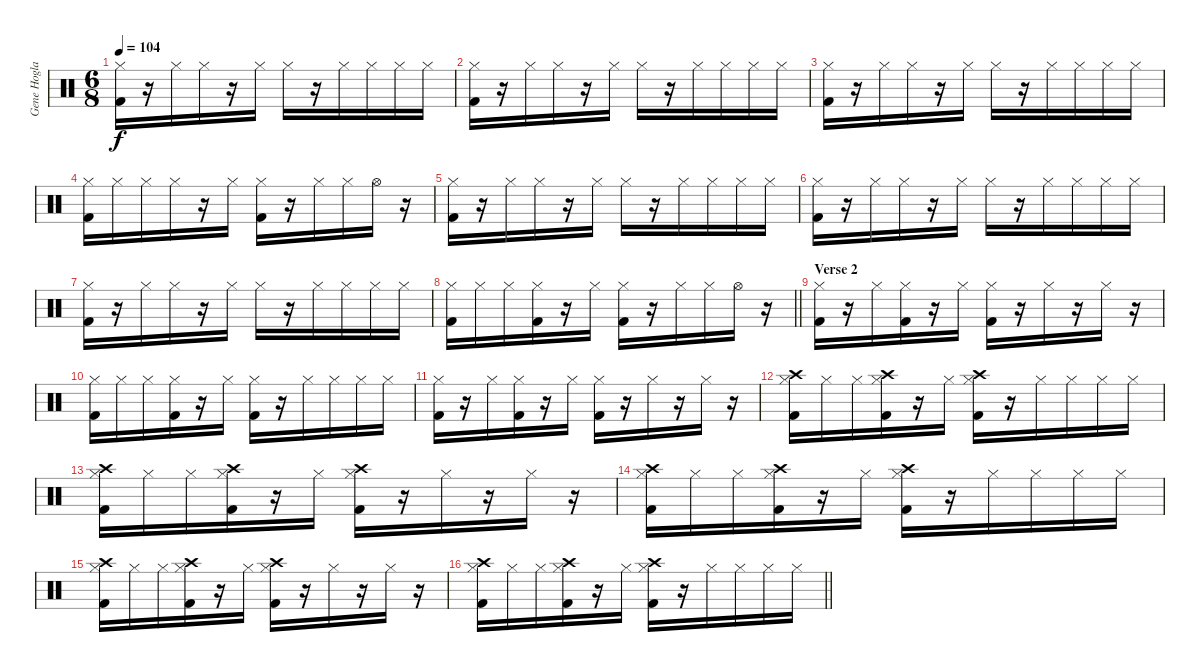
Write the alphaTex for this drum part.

\track ("Gene Hoglan" "Gene Hogla") {instrument percussion}
\staff {score}
\articulation defaults
\ts (6 8)
\tempo 104
\clef neutral
\ks c
("Hi-Hat (closed)" "Kick (hit) 2").16{dy f} r.16 "Hi-Hat (closed)".16 "Hi-Hat (closed)".16 r.16 "Hi-Hat (closed)".16 "Hi-Hat (closed)".16 r.16 "Hi-Hat (closed)".16 "Hi-Hat (closed)".16 "Hi-Hat (closed)".16 "Hi-Hat (closed)".16 |
("Hi-Hat (closed)" "Kick (hit) 2").16 r.16 "Hi-Hat (closed)".16 "Hi-Hat (closed)".16 r.16 "Hi-Hat (closed)".16 "Hi-Hat (closed)".16 r.16 "Hi-Hat (closed)".16 "Hi-Hat (closed)".16 "Hi-Hat (closed)".16 "Hi-Hat (closed)".16 |
("Hi-Hat (closed)" "Kick (hit) 2").16 r.16 "Hi-Hat (closed)".16 "Hi-Hat (closed)".16 r.16 "Hi-Hat (closed)".16 "Hi-Hat (closed)".16 r.16 "Hi-Hat (closed)".16 "Hi-Hat (closed)".16 "Hi-Hat (closed)".16 "Hi-Hat (closed)".16 |
("Hi-Hat (closed)" "Kick (hit) 2").16 "Hi-Hat (closed)".16 "Hi-Hat (closed)".16 "Hi-Hat (closed)".16 r.16 "Hi-Hat (closed)".16 ("Hi-Hat (closed)" "Kick (hit) 2").16 r.16 "Hi-Hat (closed)".16 "Hi-Hat (closed)".16 "Hi-Hat (open)".16 r.16 |
("Hi-Hat (closed)" "Kick (hit) 2").16 r.16 "Hi-Hat (closed)".16 "Hi-Hat (closed)".16 r.16 "Hi-Hat (closed)".16 "Hi-Hat (closed)".16 r.16 "Hi-Hat (closed)".16 "Hi-Hat (closed)".16 "Hi-Hat (closed)".16 "Hi-Hat (closed)".16 |
("Hi-Hat (closed)" "Kick (hit) 2").16 r.16 "Hi-Hat (closed)".16 "Hi-Hat (closed)".16 r.16 "Hi-Hat (closed)".16 "Hi-Hat (closed)".16 r.16 "Hi-Hat (closed)".16 "Hi-Hat (closed)".16 "Hi-Hat (closed)".16 "Hi-Hat (closed)".16 |
("Hi-Hat (closed)" "Kick (hit) 2").16 r.16 "Hi-Hat (closed)".16 "Hi-Hat (closed)".16 r.16 "Hi-Hat (closed)".16 "Hi-Hat (closed)".16 r.16 "Hi-Hat (closed)".16 "Hi-Hat (closed)".16 "Hi-Hat (closed)".16 "Hi-Hat (closed)".16 |
\barLineRight lightlight
("Hi-Hat (closed)" "Kick (hit) 2").16 "Hi-Hat (closed)".16 "Hi-Hat (closed)".16 ("Hi-Hat (closed)" "Kick (hit) 2").16 r.16 "Hi-Hat (closed)".16 ("Hi-Hat (closed)" "Kick (hit) 2").16 r.16 "Hi-Hat (closed)".16 "Hi-Hat (closed)".16 "Hi-Hat (open)".16 r.16 |
\section ("" "Verse 2")
("Hi-Hat (closed)" "Kick (hit) 2").16 r.16 "Hi-Hat (closed)".16 ("Hi-Hat (closed)" "Kick (hit) 2").16 r.16 "Hi-Hat (closed)".16 ("Hi-Hat (closed)" "Kick (hit) 2").16 r.16 "Hi-Hat (closed)".16 r.16 "Hi-Hat (closed)".16 r.16 |
("Hi-Hat (closed)" "Kick (hit) 2").16 "Hi-Hat (closed)".16 "Hi-Hat (closed)".16 ("Hi-Hat (closed)" "Kick (hit) 2").16 r.16 "Hi-Hat (closed)".16 ("Hi-Hat (closed)" "Kick (hit) 2").16 r.16 "Hi-Hat (closed)".16 "Hi-Hat (closed)".16 "Hi-Hat (closed)".16 "Hi-Hat (closed)".16 |
("Hi-Hat (closed)" "Kick (hit) 2").16 r.16 "Hi-Hat (closed)".16 ("Hi-Hat (closed)" "Kick (hit) 2").16 r.16 "Hi-Hat (closed)".16 ("Hi-Hat (closed)" "Kick (hit) 2").16 r.16 "Hi-Hat (closed)".16 r.16 "Hi-Hat (closed)".16 r.16 |
("Hi-Hat (closed)" "Crash high (hit)" "Kick (hit) 2").16 "Hi-Hat (closed)".16 "Hi-Hat (closed)".16 ("Hi-Hat (closed)" "Crash high (hit)" "Kick (hit) 2").16 r.16 "Hi-Hat (closed)".16 ("Hi-Hat (closed)" "Crash high (hit)" "Kick (hit) 2").16 r.16 "Hi-Hat (closed)".16 "Hi-Hat (closed)".16 "Hi-Hat (closed)".16 "Hi-Hat (closed)".16 |
("Hi-Hat (closed)" "Crash high (hit)" "Kick (hit) 2").16 "Hi-Hat (closed)".16 "Hi-Hat (closed)".16 ("Hi-Hat (closed)" "Crash high (hit)" "Kick (hit) 2").16 r.16 "Hi-Hat (closed)".16 ("Hi-Hat (closed)" "Crash high (hit)" "Kick (hit) 2").16 r.16 "Hi-Hat (closed)".16 r.16 "Hi-Hat (closed)".16 r.16 |
("Hi-Hat (closed)" "Crash high (hit)" "Kick (hit) 2").16 "Hi-Hat (closed)".16 "Hi-Hat (closed)".16 ("Hi-Hat (closed)" "Crash high (hit)" "Kick (hit) 2").16 r.16 "Hi-Hat (closed)".16 ("Hi-Hat (closed)" "Crash high (hit)" "Kick (hit) 2").16 r.16 "Hi-Hat (closed)".16 "Hi-Hat (closed)".16 "Hi-Hat (closed)".16 "Hi-Hat (closed)".16 |
("Hi-Hat (closed)" "Crash high (hit)" "Kick (hit) 2").16 "Hi-Hat (closed)".16 "Hi-Hat (closed)".16 ("Hi-Hat (closed)" "Crash high (hit)" "Kick (hit) 2").16 r.16 "Hi-Hat (closed)".16 ("Hi-Hat (closed)" "Crash high (hit)" "Kick (hit) 2").16 r.16 "Hi-Hat (closed)".16 r.16 "Hi-Hat (closed)".16 r.16 |
\barLineRight lightlight
("Hi-Hat (closed)" "Crash high (hit)" "Kick (hit) 2").16 "Hi-Hat (closed)".16 "Hi-Hat (closed)".16 ("Hi-Hat (closed)" "Crash high (hit)" "Kick (hit) 2").16 r.16 "Hi-Hat (closed)".16 ("Hi-Hat (closed)" "Crash high (hit)" "Kick (hit) 2").16 r.16 "Hi-Hat (closed)".16 "Hi-Hat (closed)".16 "Hi-Hat (closed)".16 "Hi-Hat (closed)".16
